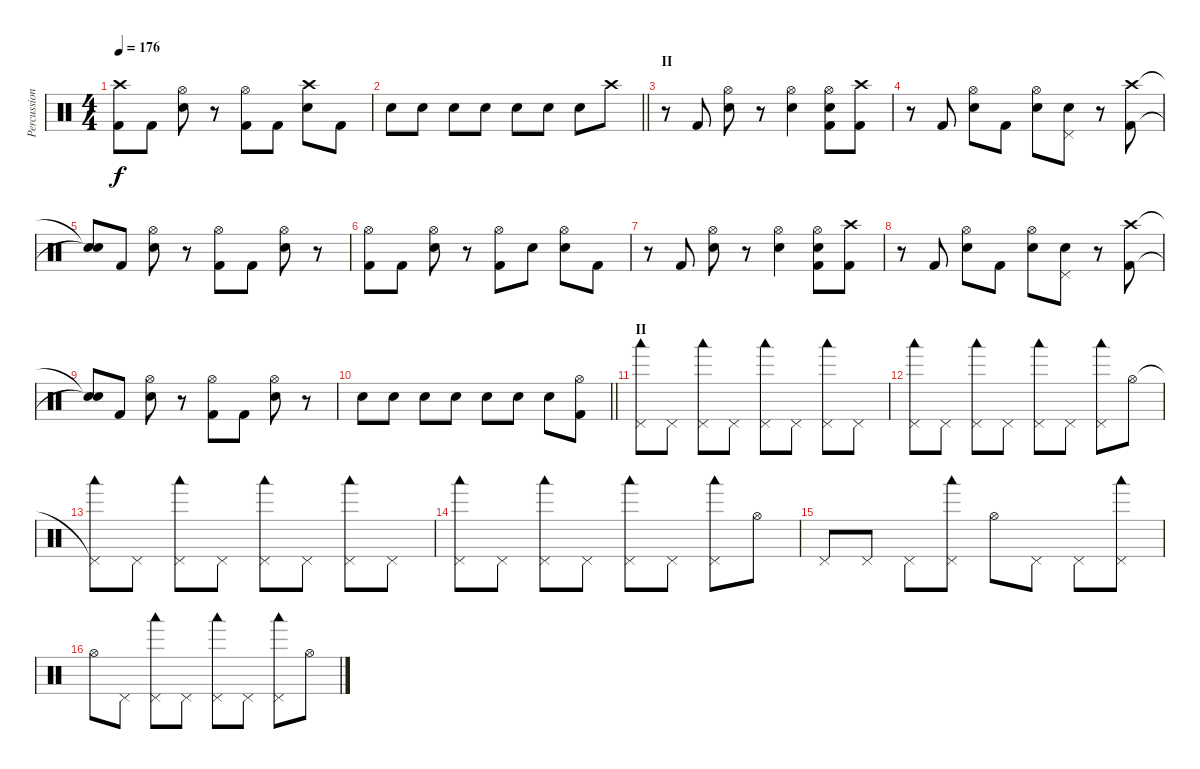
\track ("Percussion" "Percussion") {instrument percussion}
\staff {score}
\articulation defaults
\ts (4 4)
\tempo 176
\clef neutral
\ks c
("Crash high (hit)" "Kick (hit) 2").8{dy f} "Kick (hit) 2".8 ("Hi-Hat (open)" "Electric Snare (hit)").8 r.8 ("Hi-Hat (open)" "Kick (hit) 2").8 "Kick (hit) 2".8 ("Crash high (hit)" "Electric Snare (hit)").8 "Kick (hit) 2".8 |
\barLineRight lightlight "Electric Snare (hit)".8 "Electric Snare (hit)".8 "Electric Snare (hit)".8 "Electric Snare (hit)".8 "Electric Snare (hit)".8 "Electric Snare (hit)".8 "Electric Snare (hit)".8 "Crash high (hit)".8
|
\section ("" "II")
r.8 "Kick (hit) 2".8 ("Hi-Hat (open)" "Electric Snare (hit)").8 r.8 ("Hi-Hat (open)" "Electric Snare (hit)").4 ("Hi-Hat (open)" "Electric Snare (hit)" "Kick (hit) 2").8 ("Crash high (hit)" "Kick (hit) 2").8 |
r.8 "Kick (hit) 2".8 ("Hi-Hat (open)" "Electric Snare (hit)").8 "Kick (hit) 2".8 ("Hi-Hat (open)" "Electric Snare (hit)").8 ("Pedal Hi-Hat (hit)" "Electric Snare (hit)").8 r.8 ("Crash high (hit)" "Kick (hit) 2").8 |
("Snare (hit)"{t} "Snare (hit)"{t}).8 "Kick (hit) 2".8 ("Hi-Hat (open)" "Electric Snare (hit)").8 r.8 ("Hi-Hat (open)" "Kick (hit) 2").8 "Kick (hit) 2".8 ("Hi-Hat (open)" "Electric Snare (hit)").8 r.8 |
("Hi-Hat (open)" "Kick (hit) 2").8 "Kick (hit) 2".8 ("Hi-Hat (open)" "Electric Snare (hit)").8 r.8 ("Hi-Hat (open)" "Kick (hit) 2").8 "Electric Snare (hit)".8 ("Hi-Hat (open)" "Electric Snare (hit)").8 "Kick (hit) 2".8 |
r.8 "Kick (hit) 2".8 ("Hi-Hat (open)" "Electric Snare (hit)").8 r.8 ("Hi-Hat (open)" "Electric Snare (hit)").4 ("Hi-Hat (open)" "Electric Snare (hit)" "Kick (hit) 2").8 ("Crash high (hit)" "Kick (hit) 2").8 |
r.8 "Kick (hit) 2".8 ("Hi-Hat (open)" "Electric Snare (hit)").8 "Kick (hit) 2".8 ("Hi-Hat (open)" "Electric Snare (hit)").8 ("Pedal Hi-Hat (hit)" "Electric Snare (hit)").8 r.8 ("Crash high (hit)" "Kick (hit) 2").8 |
("Snare (hit)"{t} "Snare (hit)"{t}).8 "Kick (hit) 2".8 ("Hi-Hat (open)" "Electric Snare (hit)").8 r.8 ("Hi-Hat (open)" "Kick (hit) 2").8 "Kick (hit) 2".8 ("Hi-Hat (open)" "Electric Snare (hit)").8 r.8 |
\barLineRight lightlight "Electric Snare (hit)".8 "Electric Snare (hit)".8 "Electric Snare (hit)".8 "Electric Snare (hit)".8 "Electric Snare (hit)".8 "Electric Snare (hit)".8 "Electric Snare (hit)".8
("Hi-Hat (open)" "Kick (hit) 2").8 |
\section ("" "II")
("Pedal Hi-Hat (hit)" "Woodblock low (hit)").8 "Pedal Hi-Hat (hit)".8 ("Pedal Hi-Hat (hit)" "Woodblock low (hit)").8 "Pedal Hi-Hat (hit)".8 ("Pedal Hi-Hat (hit)" "Woodblock low (hit)").8 "Pedal Hi-Hat (hit)".8 ("Pedal Hi-Hat (hit)" "Woodblock low (hit)").8 "Pedal Hi-Hat (hit)".8 |
("Pedal Hi-Hat (hit)" "Woodblock low (hit)").8 "Pedal Hi-Hat (hit)".8 ("Pedal Hi-Hat (hit)" "Woodblock low (hit)").8 "Pedal Hi-Hat (hit)".8 ("Pedal Hi-Hat (hit)" "Woodblock low (hit)").8 "Pedal Hi-Hat (hit)".8 ("Pedal Hi-Hat (hit)" "Woodblock low (hit)").8 "Hi-Hat (open)".8 |
("Pedal Hi-Hat (hit)"{t} "Woodblock low (hit)").8 "Pedal Hi-Hat (hit)".8 ("Pedal Hi-Hat (hit)" "Woodblock low (hit)").8 "Pedal Hi-Hat (hit)".8 ("Pedal Hi-Hat (hit)" "Woodblock low (hit)").8 "Pedal Hi-Hat (hit)".8 ("Pedal Hi-Hat (hit)" "Woodblock low (hit)").8 "Pedal Hi-Hat (hit)".8 |
("Pedal Hi-Hat (hit)" "Woodblock low (hit)").8 "Pedal Hi-Hat (hit)".8 ("Pedal Hi-Hat (hit)" "Woodblock low (hit)").8 "Pedal Hi-Hat (hit)".8 ("Pedal Hi-Hat (hit)" "Woodblock low (hit)").8 "Pedal Hi-Hat (hit)".8 ("Pedal Hi-Hat (hit)" "Woodblock low (hit)").8 "Hi-Hat (open)".8 |
"Pedal Hi-Hat (hit)".8 "Pedal Hi-Hat (hit)".8 "Pedal Hi-Hat (hit)".8 ("Pedal Hi-Hat (hit)" "Woodblock low (hit)").8 "Hi-Hat (open)".8 "Pedal Hi-Hat (hit)".8 "Pedal Hi-Hat (hit)".8 ("Pedal Hi-Hat (hit)" "Woodblock low (hit)").8 |
"Hi-Hat (open)".8 "Pedal Hi-Hat (hit)".8 ("Pedal Hi-Hat (hit)" "Woodblock low (hit)").8 "Pedal Hi-Hat (hit)".8 ("Pedal Hi-Hat (hit)" "Woodblock low (hit)").8 "Pedal Hi-Hat (hit)".8 ("Pedal Hi-Hat (hit)" "Woodblock low (hit)").8 "Hi-Hat (open)".8
